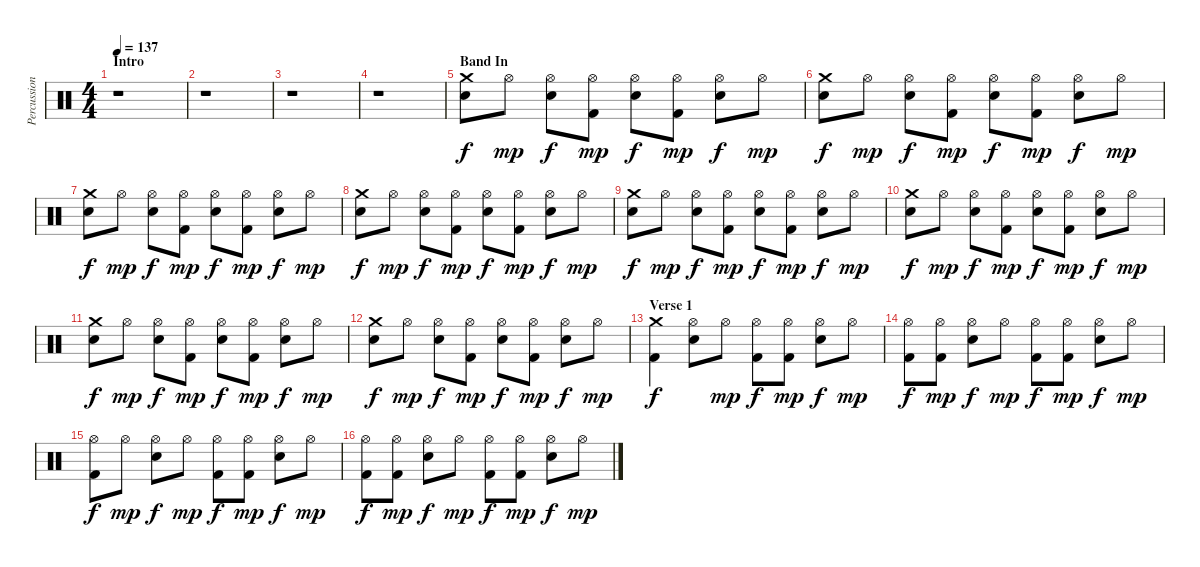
\track ("Percussion" "Percussion") {instrument percussion}
\staff {score}
\articulation defaults
\ts (4 4)
\section ("" "Intro")
\tempo 137
\clef neutral
\ks c
r.1{dy f} |
r.1 |
r.1 |
r.1 |
\section ("" "Band In")
("Crash medium (hit)" "Electric Snare (hit)").8 "Hi-Hat (open)".8{dy mp} ("Hi-Hat (open)" "Electric Snare (hit)").8{dy f} ("Hi-Hat (open)" "Kick (hit) 2").8{dy mp} ("Hi-Hat (open)" "Electric Snare (hit)").8{dy f} ("Hi-Hat (open)" "Kick (hit) 2").8{dy mp} ("Hi-Hat (open)" "Electric Snare (hit)").8{dy f} "Hi-Hat (open)".8{dy mp} |
("Crash medium (hit)" "Electric Snare (hit)").8{dy f} "Hi-Hat (open)".8{dy mp} ("Hi-Hat (open)" "Electric Snare (hit)").8{dy f} ("Hi-Hat (open)" "Kick (hit) 2").8{dy mp} ("Hi-Hat (open)" "Electric Snare (hit)").8{dy f} ("Hi-Hat (open)" "Kick (hit) 2").8{dy mp} ("Hi-Hat (open)" "Electric Snare (hit)").8{dy f} "Hi-Hat (open)".8{dy mp} |
("Crash medium (hit)" "Electric Snare (hit)").8{dy f} "Hi-Hat (open)".8{dy mp} ("Hi-Hat (open)" "Electric Snare (hit)").8{dy f} ("Hi-Hat (open)" "Kick (hit) 2").8{dy mp} ("Hi-Hat (open)" "Electric Snare (hit)").8{dy f} ("Hi-Hat (open)" "Kick (hit) 2").8{dy mp} ("Hi-Hat (open)" "Electric Snare (hit)").8{dy f} "Hi-Hat (open)".8{dy mp} |
("Crash medium (hit)" "Electric Snare (hit)").8{dy f} "Hi-Hat (open)".8{dy mp} ("Hi-Hat (open)" "Electric Snare (hit)").8{dy f} ("Hi-Hat (open)" "Kick (hit) 2").8{dy mp} ("Hi-Hat (open)" "Electric Snare (hit)").8{dy f} ("Hi-Hat (open)" "Kick (hit) 2").8{dy mp} ("Hi-Hat (open)" "Electric Snare (hit)").8{dy f} "Hi-Hat (open)".8{dy mp} |
("Crash medium (hit)" "Electric Snare (hit)").8{dy f} "Hi-Hat (open)".8{dy mp} ("Hi-Hat (open)" "Electric Snare (hit)").8{dy f} ("Hi-Hat (open)" "Kick (hit) 2").8{dy mp} ("Hi-Hat (open)" "Electric Snare (hit)").8{dy f} ("Hi-Hat (open)" "Kick (hit) 2").8{dy mp} ("Hi-Hat (open)" "Electric Snare (hit)").8{dy f} "Hi-Hat (open)".8{dy mp} |
("Crash medium (hit)" "Electric Snare (hit)").8{dy f} "Hi-Hat (open)".8{dy mp} ("Hi-Hat (open)" "Electric Snare (hit)").8{dy f} ("Hi-Hat (open)" "Kick (hit) 2").8{dy mp} ("Hi-Hat (open)" "Electric Snare (hit)").8{dy f} ("Hi-Hat (open)" "Kick (hit) 2").8{dy mp} ("Hi-Hat (open)" "Electric Snare (hit)").8{dy f} "Hi-Hat (open)".8{dy mp} |
("Crash medium (hit)" "Electric Snare (hit)").8{dy f} "Hi-Hat (open)".8{dy mp} ("Hi-Hat (open)" "Electric Snare (hit)").8{dy f} ("Hi-Hat (open)" "Kick (hit) 2").8{dy mp} ("Hi-Hat (open)" "Electric Snare (hit)").8{dy f} ("Hi-Hat (open)" "Kick (hit) 2").8{dy mp} ("Hi-Hat (open)" "Electric Snare (hit)").8{dy f} "Hi-Hat (open)".8{dy mp} |
("Crash medium (hit)" "Electric Snare (hit)").8{dy f} "Hi-Hat (open)".8{dy mp} ("Hi-Hat (open)" "Electric Snare (hit)").8{dy f} ("Hi-Hat (open)" "Kick (hit) 2").8{dy mp} ("Hi-Hat (open)" "Electric Snare (hit)").8{dy f} ("Hi-Hat (open)" "Kick (hit) 2").8{dy mp} ("Hi-Hat (open)" "Electric Snare (hit)").8{dy f} "Hi-Hat (open)".8{dy mp} |
\section ("" "Verse 1")
("Crash medium (hit)" "Kick (hit) 2").4{dy f} ("Hi-Hat (open)" "Electric Snare (hit)").8 "Hi-Hat (open)".8{dy mp} ("Hi-Hat (open)" "Kick (hit) 2").8{dy f} ("Hi-Hat (open)" "Kick (hit) 2").8{dy mp} ("Hi-Hat (open)" "Electric Snare (hit)").8{dy f} "Hi-Hat (open)".8{dy mp} |
("Hi-Hat (open)" "Kick (hit) 2").8{dy f} ("Hi-Hat (open)" "Kick (hit) 2").8{dy mp} ("Hi-Hat (open)" "Electric Snare (hit)").8{dy f} "Hi-Hat (open)".8{dy mp} ("Hi-Hat (open)" "Kick (hit) 2").8{dy f} ("Hi-Hat (open)" "Kick (hit) 2").8{dy mp} ("Hi-Hat (open)" "Electric Snare (hit)").8{dy f} "Hi-Hat (open)".8{dy mp} |
("Hi-Hat (open)" "Kick (hit) 2").8{dy f} "Hi-Hat (open)".8{dy mp} ("Hi-Hat (open)" "Electric Snare (hit)").8{dy f} "Hi-Hat (open)".8{dy mp} ("Hi-Hat (open)" "Kick (hit) 2").8{dy f} ("Hi-Hat (open)" "Kick (hit) 2").8{dy mp} ("Hi-Hat (open)" "Electric Snare (hit)").8{dy f} "Hi-Hat (open)".8{dy mp} |
("Hi-Hat (open)" "Kick (hit) 2").8{dy f} ("Hi-Hat (open)" "Kick (hit) 2").8{dy mp} ("Hi-Hat (open)" "Electric Snare (hit)").8{dy f} "Hi-Hat (open)".8{dy mp} ("Hi-Hat (open)" "Kick (hit) 2").8{dy f} ("Hi-Hat (open)" "Kick (hit) 2").8{dy mp} ("Hi-Hat (open)" "Electric Snare (hit)").8{dy f} "Hi-Hat (open)".8{dy mp}
